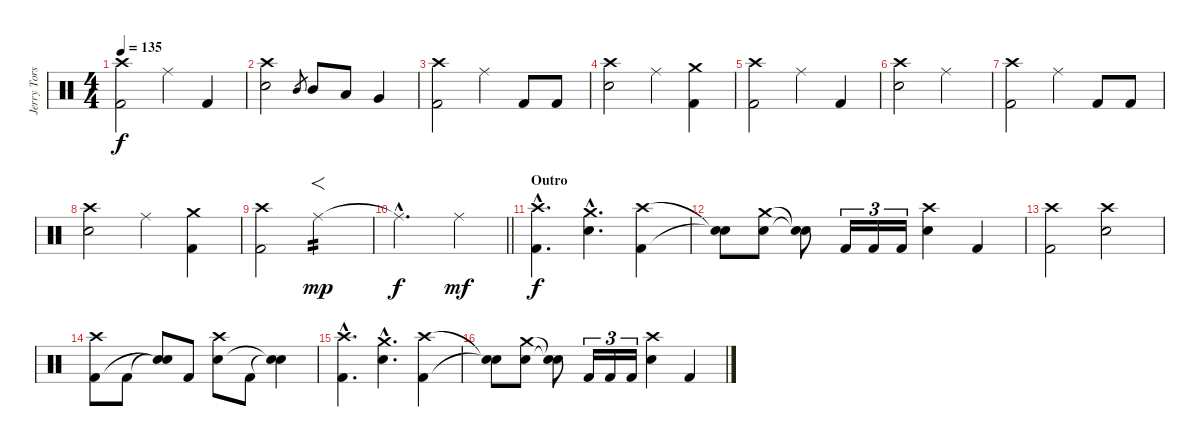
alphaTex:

\track ("Jerry Torstensson" "Jerry Tors") {instrument percussion}
\staff {score}
\articulation defaults
\ts (4 4)
\tempo 135
\clef neutral
\ks c
("Crash high (hit)" "Kick (hit) 2").2{dy f} "Ride (middle)".4 "Kick (hit) 2".4 |
("Crash high (hit)" "Snare (hit) 2").2 "Mid Tom (hit)".8{gr} "Mid Tom (hit)".8 "Low Tom (hit)".8 "Very Low Tom (hit)".4 |
("Crash high (hit)" "Kick (hit) 2").2 "Ride (middle)".4 "Kick (hit) 2".8 "Kick (hit) 2".8 |
("Crash high (hit)" "Snare (hit) 2").2 "Ride (middle)".4 ("Crash medium (hit)" "Kick (hit) 2").4 |
("Crash high (hit)" "Kick (hit) 2").2 "Ride (middle)".4 "Kick (hit) 2".4 |
("Crash high (hit)" "Snare (hit) 2").2 "Ride (middle)".2 |
("Crash high (hit)" "Kick (hit) 2").2 "Ride (middle)".4 "Kick (hit) 2".8 "Kick (hit) 2".8 |
("Crash high (hit)" "Snare (hit) 2").2 "Ride (middle)".4 ("Crash medium (hit)" "Kick (hit) 2").4 |
("Crash high (hit)" "Kick (hit) 2").2 "Ride (middle)".2{f tp 2 dy mp} |
\barLineRight lightlight "Ride (middle)"{hac t}.2{d dy f} "Ride (middle)".4{dy mf}
|
\section ("" "Outro")
("Crash high (hit)"{hac} "Kick (hit) 2"{hac}).4{d dy f} ("Crash medium (hit)"{hac} "Snare (hit) 2"{hac}).4{d} ("Crash high (hit)" "Kick (hit) 2").4 |
("Snare (hit)"{t} "Snare (hit)"{t}).8 ("Crash medium (hit)" "Snare (hit) 2").8 ("Snare (hit)"{t} "Snare (hit)"{t}).8 "Kick (hit) 2".16{tu (3 2)} "Kick (hit) 2".16{tu (3 2)} "Kick (hit) 2".16{tu (3 2)} ("Crash high (hit)" "Snare (hit) 2").4 "Kick (hit) 2".4 |
("Crash high (hit)" "Kick (hit) 2").2 ("Crash high (hit)" "Snare (hit) 2").2 |
("Crash high (hit)" "Kick (hit) 2").8 "Kick (hit) 2".8 ("Snare (hit)"{t} "Snare (hit)"{t}).8 "Kick (hit) 2".8 ("Crash high (hit)" "Snare (hit) 2").8 "Kick (hit) 2".8 ("Snare (hit)"{t} "Snare (hit)"{t}).4 |
("Crash high (hit)"{hac} "Kick (hit) 2"{hac}).4{d} ("Crash medium (hit)"{hac} "Snare (hit) 2"{hac}).4{d} ("Crash high (hit)" "Kick (hit) 2").4 |
("Snare (hit)"{t} "Snare (hit)"{t}).8 ("Crash medium (hit)" "Snare (hit) 2").8 ("Snare (hit)"{t} "Snare (hit)"{t}).8 "Kick (hit) 2".16{tu (3 2)} "Kick (hit) 2".16{tu (3 2)} "Kick (hit) 2".16{tu (3 2)} ("Crash high (hit)" "Snare (hit) 2").4 "Kick (hit) 2".4
